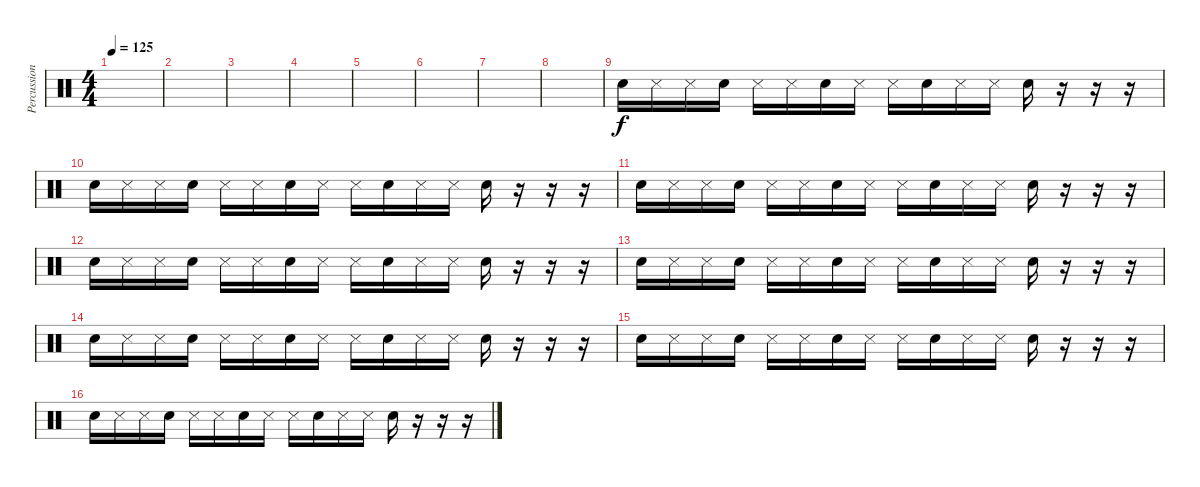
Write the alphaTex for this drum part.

\track ("Percussion" "Percussion") {instrument percussion}
\staff {score}
\articulation defaults
\ts (4 4)
\tempo 125
\clef neutral
\ks c
|
|
|
|
|
|
|
|
"Snare (hit) 2".16{dy f} "Snare (side stick) 3".16 "Snare (side stick) 3".16 "Snare (hit) 2".16 "Snare (side stick) 3".16 "Snare (side stick) 3".16 "Snare (hit) 2".16 "Snare (side stick) 3".16 "Snare (side stick) 3".16 "Snare (hit) 2".16 "Snare (side stick) 3".16 "Snare (side stick) 3".16 "Snare (hit) 2".16 r.16 r.16 r.16 |
"Snare (hit) 2".16 "Snare (side stick) 3".16 "Snare (side stick) 3".16 "Snare (hit) 2".16 "Snare (side stick) 3".16 "Snare (side stick) 3".16 "Snare (hit) 2".16 "Snare (side stick) 3".16 "Snare (side stick) 3".16 "Snare (hit) 2".16 "Snare (side stick) 3".16 "Snare (side stick) 3".16 "Snare (hit) 2".16 r.16 r.16 r.16 |
"Snare (hit) 2".16 "Snare (side stick) 3".16 "Snare (side stick) 3".16 "Snare (hit) 2".16 "Snare (side stick) 3".16 "Snare (side stick) 3".16 "Snare (hit) 2".16 "Snare (side stick) 3".16 "Snare (side stick) 3".16 "Snare (hit) 2".16 "Snare (side stick) 3".16 "Snare (side stick) 3".16 "Snare (hit) 2".16 r.16 r.16 r.16 |
"Snare (hit) 2".16 "Snare (side stick) 3".16 "Snare (side stick) 3".16 "Snare (hit) 2".16 "Snare (side stick) 3".16 "Snare (side stick) 3".16 "Snare (hit) 2".16 "Snare (side stick) 3".16 "Snare (side stick) 3".16 "Snare (hit) 2".16 "Snare (side stick) 3".16 "Snare (side stick) 3".16 "Snare (hit) 2".16 r.16 r.16 r.16 |
"Snare (hit) 2".16 "Snare (side stick) 3".16 "Snare (side stick) 3".16 "Snare (hit) 2".16 "Snare (side stick) 3".16 "Snare (side stick) 3".16 "Snare (hit) 2".16 "Snare (side stick) 3".16 "Snare (side stick) 3".16 "Snare (hit) 2".16 "Snare (side stick) 3".16 "Snare (side stick) 3".16 "Snare (hit) 2".16 r.16 r.16 r.16 |
"Snare (hit) 2".16 "Snare (side stick) 3".16 "Snare (side stick) 3".16 "Snare (hit) 2".16 "Snare (side stick) 3".16 "Snare (side stick) 3".16 "Snare (hit) 2".16 "Snare (side stick) 3".16 "Snare (side stick) 3".16 "Snare (hit) 2".16 "Snare (side stick) 3".16 "Snare (side stick) 3".16 "Snare (hit) 2".16 r.16 r.16 r.16 |
"Snare (hit) 2".16 "Snare (side stick) 3".16 "Snare (side stick) 3".16 "Snare (hit) 2".16 "Snare (side stick) 3".16 "Snare (side stick) 3".16 "Snare (hit) 2".16 "Snare (side stick) 3".16 "Snare (side stick) 3".16 "Snare (hit) 2".16 "Snare (side stick) 3".16 "Snare (side stick) 3".16 "Snare (hit) 2".16 r.16 r.16 r.16 |
"Snare (hit) 2".16 "Snare (side stick) 3".16 "Snare (side stick) 3".16 "Snare (hit) 2".16 "Snare (side stick) 3".16 "Snare (side stick) 3".16 "Snare (hit) 2".16 "Snare (side stick) 3".16 "Snare (side stick) 3".16 "Snare (hit) 2".16 "Snare (side stick) 3".16 "Snare (side stick) 3".16 "Snare (hit) 2".16 r.16 r.16 r.16
